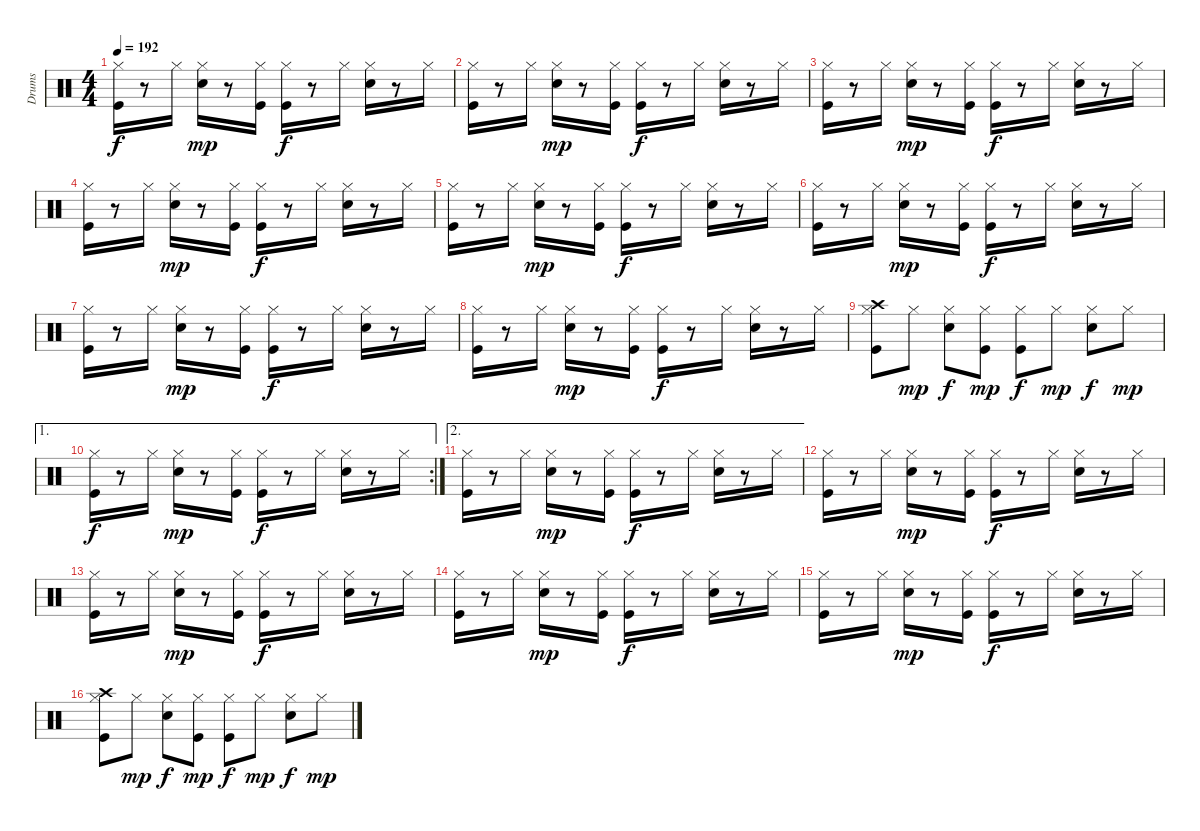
\track ("Drums" "Drums") {instrument percussion}
\staff {score}
\articulation defaults
\ts (4 4)
\tempo 192
\clef neutral
\ks c
("Kick (hit)" "Hi-Hat (closed)").16{dy f} r.8 "Hi-Hat (closed)".16 ("Snare (hit) 2" "Hi-Hat (closed)").16{dy mp} r.8 ("Kick (hit)" "Hi-Hat (closed)").16 ("Kick (hit)" "Hi-Hat (closed)").16{dy f} r.8 "Hi-Hat (closed)".16 ("Snare (hit) 2" "Hi-Hat (closed)").16 r.8 "Hi-Hat (closed)".16 |
("Kick (hit)" "Hi-Hat (closed)").16 r.8 "Hi-Hat (closed)".16 ("Snare (hit) 2" "Hi-Hat (closed)").16{dy mp} r.8 ("Kick (hit)" "Hi-Hat (closed)").16 ("Kick (hit)" "Hi-Hat (closed)").16{dy f} r.8 "Hi-Hat (closed)".16 ("Snare (hit) 2" "Hi-Hat (closed)").16 r.8 "Hi-Hat (closed)".16 |
("Kick (hit)" "Hi-Hat (closed)").16 r.8 "Hi-Hat (closed)".16 ("Snare (hit) 2" "Hi-Hat (closed)").16{dy mp} r.8 ("Kick (hit)" "Hi-Hat (closed)").16 ("Kick (hit)" "Hi-Hat (closed)").16{dy f} r.8 "Hi-Hat (closed)".16 ("Snare (hit) 2" "Hi-Hat (closed)").16 r.8 "Hi-Hat (closed)".16 |
("Kick (hit)" "Hi-Hat (closed)").16 r.8 "Hi-Hat (closed)".16 ("Snare (hit) 2" "Hi-Hat (closed)").16{dy mp} r.8 ("Kick (hit)" "Hi-Hat (closed)").16 ("Kick (hit)" "Hi-Hat (closed)").16{dy f} r.8 "Hi-Hat (closed)".16 ("Snare (hit) 2" "Hi-Hat (closed)").16 r.8 "Hi-Hat (closed)".16 |
("Kick (hit)" "Hi-Hat (closed)").16 r.8 "Hi-Hat (closed)".16 ("Snare (hit) 2" "Hi-Hat (closed)").16{dy mp} r.8 ("Kick (hit)" "Hi-Hat (closed)").16 ("Kick (hit)" "Hi-Hat (closed)").16{dy f} r.8 "Hi-Hat (closed)".16 ("Snare (hit) 2" "Hi-Hat (closed)").16 r.8 "Hi-Hat (closed)".16 |
("Kick (hit)" "Hi-Hat (closed)").16 r.8 "Hi-Hat (closed)".16 ("Snare (hit) 2" "Hi-Hat (closed)").16{dy mp} r.8 ("Kick (hit)" "Hi-Hat (closed)").16 ("Kick (hit)" "Hi-Hat (closed)").16{dy f} r.8 "Hi-Hat (closed)".16 ("Snare (hit) 2" "Hi-Hat (closed)").16 r.8 "Hi-Hat (closed)".16 |
("Kick (hit)" "Hi-Hat (closed)").16 r.8 "Hi-Hat (closed)".16 ("Snare (hit) 2" "Hi-Hat (closed)").16{dy mp} r.8 ("Kick (hit)" "Hi-Hat (closed)").16 ("Kick (hit)" "Hi-Hat (closed)").16{dy f} r.8 "Hi-Hat (closed)".16 ("Snare (hit) 2" "Hi-Hat (closed)").16 r.8 "Hi-Hat (closed)".16 |
("Kick (hit)" "Hi-Hat (closed)").16 r.8 "Hi-Hat (closed)".16 ("Snare (hit) 2" "Hi-Hat (closed)").16{dy mp} r.8 ("Kick (hit)" "Hi-Hat (closed)").16 ("Kick (hit)" "Hi-Hat (closed)").16{dy f} r.8 "Hi-Hat (closed)".16 ("Snare (hit) 2" "Hi-Hat (closed)").16 r.8 "Hi-Hat (closed)".16 |
("Kick (hit)" "Hi-Hat (closed)" "Crash high (hit)").8 "Hi-Hat (closed)".8{dy mp} ("Snare (hit) 2" "Hi-Hat (closed)").8{dy f} ("Kick (hit)" "Hi-Hat (closed)").8{dy mp} ("Kick (hit)" "Hi-Hat (closed)").8{dy f} "Hi-Hat (closed)".8{dy mp} ("Snare (hit) 2" "Hi-Hat (closed)").8{dy f} "Hi-Hat (closed)".8{dy mp} |
\ae 1
\rc 2
("Kick (hit)" "Hi-Hat (closed)").16{dy f} r.8 "Hi-Hat (closed)".16 ("Snare (hit) 2" "Hi-Hat (closed)").16{dy mp} r.8 ("Kick (hit)" "Hi-Hat (closed)").16 ("Kick (hit)" "Hi-Hat (closed)").16{dy f} r.8 "Hi-Hat (closed)".16 ("Snare (hit) 2" "Hi-Hat (closed)").16 r.8 "Hi-Hat (closed)".16 |
\ae 2
("Kick (hit)" "Hi-Hat (closed)").16 r.8 "Hi-Hat (closed)".16 ("Snare (hit) 2" "Hi-Hat (closed)").16{dy mp} r.8 ("Kick (hit)" "Hi-Hat (closed)").16 ("Kick (hit)" "Hi-Hat (closed)").16{dy f} r.8 "Hi-Hat (closed)".16 ("Snare (hit) 2" "Hi-Hat (closed)").16 r.8 "Hi-Hat (closed)".16 |
("Kick (hit)" "Hi-Hat (closed)").16 r.8 "Hi-Hat (closed)".16 ("Snare (hit) 2" "Hi-Hat (closed)").16{dy mp} r.8 ("Kick (hit)" "Hi-Hat (closed)").16 ("Kick (hit)" "Hi-Hat (closed)").16{dy f} r.8 "Hi-Hat (closed)".16 ("Snare (hit) 2" "Hi-Hat (closed)").16 r.8 "Hi-Hat (closed)".16 |
("Kick (hit)" "Hi-Hat (closed)").16 r.8 "Hi-Hat (closed)".16 ("Snare (hit) 2" "Hi-Hat (closed)").16{dy mp} r.8 ("Kick (hit)" "Hi-Hat (closed)").16 ("Kick (hit)" "Hi-Hat (closed)").16{dy f} r.8 "Hi-Hat (closed)".16 ("Snare (hit) 2" "Hi-Hat (closed)").16 r.8 "Hi-Hat (closed)".16 |
("Kick (hit)" "Hi-Hat (closed)").16 r.8 "Hi-Hat (closed)".16 ("Snare (hit) 2" "Hi-Hat (closed)").16{dy mp} r.8 ("Kick (hit)" "Hi-Hat (closed)").16 ("Kick (hit)" "Hi-Hat (closed)").16{dy f} r.8 "Hi-Hat (closed)".16 ("Snare (hit) 2" "Hi-Hat (closed)").16 r.8 "Hi-Hat (closed)".16 |
("Kick (hit)" "Hi-Hat (closed)").16 r.8 "Hi-Hat (closed)".16 ("Snare (hit) 2" "Hi-Hat (closed)").16{dy mp} r.8 ("Kick (hit)" "Hi-Hat (closed)").16 ("Kick (hit)" "Hi-Hat (closed)").16{dy f} r.8 "Hi-Hat (closed)".16 ("Snare (hit) 2" "Hi-Hat (closed)").16 r.8 "Hi-Hat (closed)".16 |
("Kick (hit)" "Hi-Hat (closed)" "Crash high (hit)").8 "Hi-Hat (closed)".8{dy mp} ("Snare (hit) 2" "Hi-Hat (closed)").8{dy f} ("Kick (hit)" "Hi-Hat (closed)").8{dy mp} ("Kick (hit)" "Hi-Hat (closed)").8{dy f} "Hi-Hat (closed)".8{dy mp} ("Snare (hit) 2" "Hi-Hat (closed)").8{dy f} "Hi-Hat (closed)".8{dy mp}
